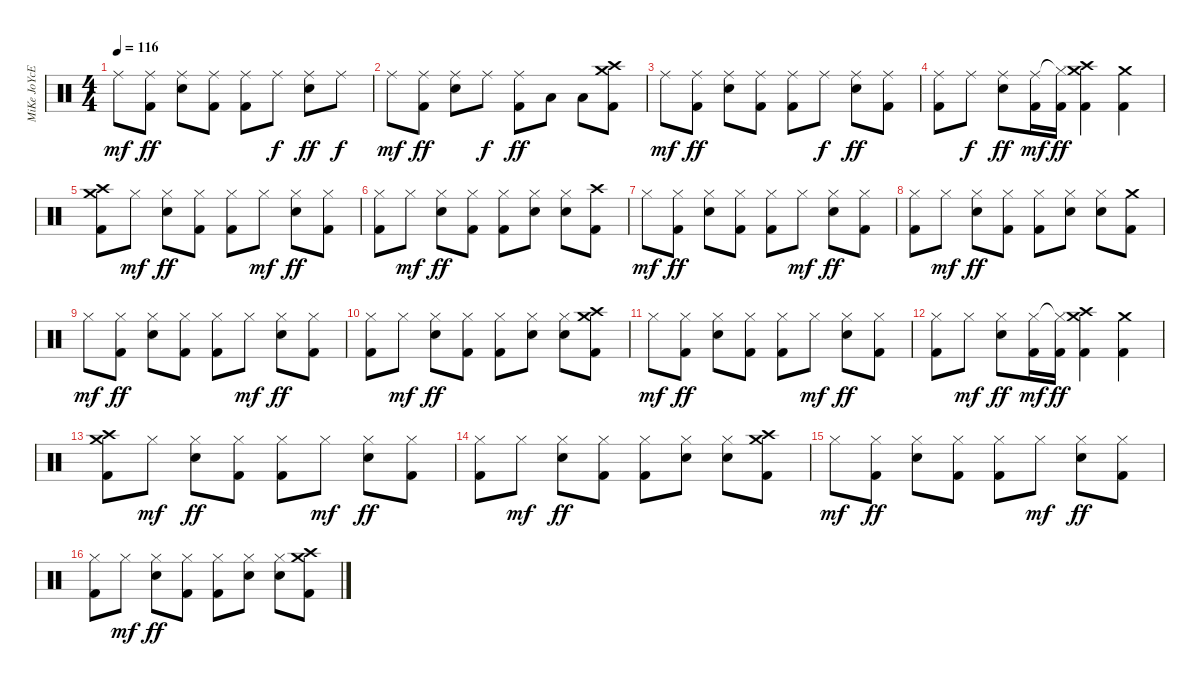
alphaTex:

\track ("MiKe JoYcE" "MiKe JoYcE") {instrument percussion}
\staff {score}
\articulation defaults
\ts (4 4)
\tempo 116
\clef neutral
\ks c "Ride (middle)".8{dy mf}
("Ride (middle)" "Kick (hit) 2").8{dy ff} ("Ride (middle)" "Electric Snare (hit)").8 ("Ride (middle)" "Kick (hit) 2").8 ("Ride (middle)" "Kick (hit) 2").8 "Ride (middle)".8{dy f} ("Ride (middle)" "Electric Snare (hit)").8{dy ff} "Ride (middle)".8{dy f} |
"Ride (middle)".8{dy mf} ("Ride (middle)" "Kick (hit) 2").8{dy ff} ("Ride (middle)" "Electric Snare (hit)").8 "Ride (middle)".8{dy f} ("Ride (middle)" "Kick (hit) 2").8{dy ff} "Low Tom (hit)".8 "Low Tom (hit)".8 ("Crash high (hit)" "Crash medium (hit)" "Kick (hit) 2").8 |
"Ride (middle)".8{dy mf} ("Ride (middle)" "Kick (hit) 2").8{dy ff} ("Ride (middle)" "Electric Snare (hit)").8 ("Ride (middle)" "Kick (hit) 2").8 ("Ride (middle)" "Kick (hit) 2").8 "Ride (middle)".8{dy f} ("Ride (middle)" "Electric Snare (hit)").8{dy ff} ("Ride (middle)" "Kick (hit) 2").8 |
("Ride (middle)" "Kick (hit) 2").8 "Ride (middle)".8{dy f} ("Ride (middle)" "Electric Snare (hit)").8{dy ff} ("Ride (middle)" "Kick (hit) 2").16{dy mf} ("Hi-Hat (closed)"{t} "Kick (hit) 2").16{dy ff} ("Crash high (hit)" "Crash medium (hit)" "Kick (hit) 2").4 ("Crash medium (hit)" "Kick (hit) 2").4 |
("Crash high (hit)" "Crash medium (hit)" "Kick (hit) 2").8 "Hi-Hat (closed)".8{dy mf} ("Hi-Hat (closed)" "Electric Snare (hit)").8{dy ff} ("Hi-Hat (closed)" "Kick (hit) 2").8 ("Hi-Hat (closed)" "Kick (hit) 2").8 "Hi-Hat (closed)".8{dy mf} ("Hi-Hat (closed)" "Electric Snare (hit)").8{dy ff} ("Hi-Hat (closed)" "Kick (hit) 2").8 |
("Hi-Hat (closed)" "Kick (hit) 2").8 "Hi-Hat (closed)".8{dy mf} ("Hi-Hat (closed)" "Electric Snare (hit)").8{dy ff} ("Hi-Hat (closed)" "Kick (hit) 2").8 ("Hi-Hat (closed)" "Kick (hit) 2").8 ("Hi-Hat (closed)" "Electric Snare (hit)").8 ("Hi-Hat (closed)" "Electric Snare (hit)").8 ("Crash high (hit)" "Kick (hit) 2").8 |
"Hi-Hat (closed)".8{dy mf} ("Hi-Hat (closed)" "Kick (hit) 2").8{dy ff} ("Hi-Hat (closed)" "Electric Snare (hit)").8 ("Hi-Hat (closed)" "Kick (hit) 2").8 ("Hi-Hat (closed)" "Kick (hit) 2").8 "Hi-Hat (closed)".8{dy mf} ("Hi-Hat (closed)" "Electric Snare (hit)").8{dy ff} ("Hi-Hat (closed)" "Kick (hit) 2").8 |
("Hi-Hat (closed)" "Kick (hit) 2").8 "Hi-Hat (closed)".8{dy mf} ("Hi-Hat (closed)" "Electric Snare (hit)").8{dy ff} ("Hi-Hat (closed)" "Kick (hit) 2").8 ("Hi-Hat (closed)" "Kick (hit) 2").8 ("Hi-Hat (closed)" "Electric Snare (hit)").8 ("Hi-Hat (closed)" "Electric Snare (hit)").8 ("Crash medium (hit)" "Kick (hit) 2").8 |
"Hi-Hat (closed)".8{dy mf} ("Hi-Hat (closed)" "Kick (hit) 2").8{dy ff} ("Hi-Hat (closed)" "Electric Snare (hit)").8 ("Hi-Hat (closed)" "Kick (hit) 2").8 ("Hi-Hat (closed)" "Kick (hit) 2").8 "Hi-Hat (closed)".8{dy mf} ("Hi-Hat (closed)" "Electric Snare (hit)").8{dy ff} ("Hi-Hat (closed)" "Kick (hit) 2").8 |
("Hi-Hat (closed)" "Kick (hit) 2").8 "Hi-Hat (closed)".8{dy mf} ("Hi-Hat (closed)" "Electric Snare (hit)").8{dy ff} ("Hi-Hat (closed)" "Kick (hit) 2").8 ("Hi-Hat (closed)" "Kick (hit) 2").8 ("Hi-Hat (closed)" "Electric Snare (hit)").8 ("Hi-Hat (closed)" "Electric Snare (hit)").8 ("Crash high (hit)" "Crash medium (hit)" "Kick (hit) 2").8 |
"Hi-Hat (closed)".8{dy mf} ("Hi-Hat (closed)" "Kick (hit) 2").8{dy ff} ("Hi-Hat (closed)" "Electric Snare (hit)").8 ("Hi-Hat (closed)" "Kick (hit) 2").8 ("Hi-Hat (closed)" "Kick (hit) 2").8 "Hi-Hat (closed)".8{dy mf} ("Hi-Hat (closed)" "Electric Snare (hit)").8{dy ff} ("Hi-Hat (closed)" "Kick (hit) 2").8 |
("Hi-Hat (closed)" "Kick (hit) 2").8 "Hi-Hat (closed)".8{dy mf} ("Hi-Hat (closed)" "Electric Snare (hit)").8{dy ff} ("Hi-Hat (closed)" "Kick (hit) 2").16{dy mf} ("Hi-Hat (closed)"{t} "Kick (hit) 2").16{dy ff} ("Crash high (hit)" "Crash medium (hit)" "Kick (hit) 2").4 ("Crash medium (hit)" "Kick (hit) 2").4 |
("Crash high (hit)" "Crash medium (hit)" "Kick (hit) 2").8 "Hi-Hat (closed)".8{dy mf} ("Hi-Hat (closed)" "Electric Snare (hit)").8{dy ff} ("Hi-Hat (closed)" "Kick (hit) 2").8 ("Hi-Hat (closed)" "Kick (hit) 2").8 "Hi-Hat (closed)".8{dy mf} ("Hi-Hat (closed)" "Electric Snare (hit)").8{dy ff} ("Hi-Hat (closed)" "Kick (hit) 2").8 |
("Hi-Hat (closed)" "Kick (hit) 2").8 "Hi-Hat (closed)".8{dy mf} ("Hi-Hat (closed)" "Electric Snare (hit)").8{dy ff} ("Hi-Hat (closed)" "Kick (hit) 2").8 ("Hi-Hat (closed)" "Kick (hit) 2").8 ("Hi-Hat (closed)" "Electric Snare (hit)").8 ("Hi-Hat (closed)" "Electric Snare (hit)").8 ("Crash high (hit)" "Crash medium (hit)" "Kick (hit) 2").8 |
"Hi-Hat (closed)".8{dy mf} ("Hi-Hat (closed)" "Kick (hit) 2").8{dy ff} ("Hi-Hat (closed)" "Electric Snare (hit)").8 ("Hi-Hat (closed)" "Kick (hit) 2").8 ("Hi-Hat (closed)" "Kick (hit) 2").8 "Hi-Hat (closed)".8{dy mf} ("Hi-Hat (closed)" "Electric Snare (hit)").8{dy ff} ("Hi-Hat (closed)" "Kick (hit) 2").8 |
("Hi-Hat (closed)" "Kick (hit) 2").8 "Hi-Hat (closed)".8{dy mf} ("Hi-Hat (closed)" "Electric Snare (hit)").8{dy ff} ("Hi-Hat (closed)" "Kick (hit) 2").8 ("Hi-Hat (closed)" "Kick (hit) 2").8 ("Hi-Hat (closed)" "Electric Snare (hit)").8 ("Hi-Hat (closed)" "Electric Snare (hit)").8 ("Crash medium (hit)" "Crash high (hit)" "Kick (hit) 2").8
